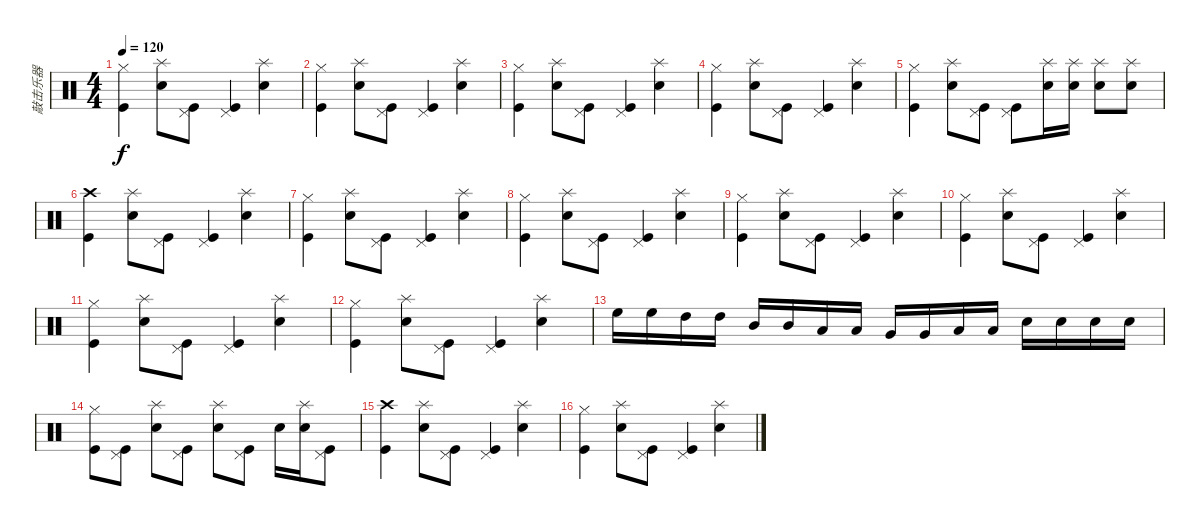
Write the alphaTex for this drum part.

\track ("敲击乐器" "敲击乐器") {instrument percussion}
\staff {score}
\articulation defaults
\ts (4 4)
\tempo 120
\clef neutral
\ks c
("Hi-Hat (closed)" "Kick (hit)").4{dy f} ("Splash (hit)" "Snare (hit) 2").8 ("Pedal Hi-Hat (hit)" "Kick (hit)").8 ("Pedal Hi-Hat (hit)" "Kick (hit)").4 ("Splash (hit)" "Snare (hit) 2").4 |
("Hi-Hat (closed)" "Kick (hit)").4 ("Splash (hit)" "Snare (hit) 2").8 ("Pedal Hi-Hat (hit)" "Kick (hit)").8 ("Pedal Hi-Hat (hit)" "Kick (hit)").4 ("Splash (hit)" "Snare (hit) 2").4 |
("Hi-Hat (closed)" "Kick (hit)").4 ("Splash (hit)" "Snare (hit) 2").8 ("Pedal Hi-Hat (hit)" "Kick (hit)").8 ("Pedal Hi-Hat (hit)" "Kick (hit)").4 ("Splash (hit)" "Snare (hit) 2").4 |
("Hi-Hat (closed)" "Kick (hit)").4 ("Splash (hit)" "Snare (hit) 2").8 ("Pedal Hi-Hat (hit)" "Kick (hit)").8 ("Pedal Hi-Hat (hit)" "Kick (hit)").4 ("Splash (hit)" "Snare (hit) 2").4 |
("Hi-Hat (closed)" "Kick (hit)").4 ("Splash (hit)" "Snare (hit) 2").8 ("Pedal Hi-Hat (hit)" "Kick (hit)").8 ("Pedal Hi-Hat (hit)" "Kick (hit)").8 ("Splash (hit)" "Snare (hit) 2").16 ("Splash (hit)" "Snare (hit) 2").16 ("Splash (hit)" "Snare (hit) 2").8 ("Splash (hit)" "Snare (hit) 2").8 |
("Crash high (hit)" "Kick (hit)").4 ("Splash (hit)" "Snare (hit) 2").8 ("Pedal Hi-Hat (hit)" "Kick (hit)").8 ("Pedal Hi-Hat (hit)" "Kick (hit)").4 ("Splash (hit)" "Snare (hit) 2").4 |
("Hi-Hat (closed)" "Kick (hit)").4 ("Splash (hit)" "Snare (hit) 2").8 ("Pedal Hi-Hat (hit)" "Kick (hit)").8 ("Pedal Hi-Hat (hit)" "Kick (hit)").4 ("Splash (hit)" "Snare (hit) 2").4 |
("Hi-Hat (closed)" "Kick (hit)").4 ("Splash (hit)" "Snare (hit) 2").8 ("Pedal Hi-Hat (hit)" "Kick (hit)").8 ("Pedal Hi-Hat (hit)" "Kick (hit)").4 ("Splash (hit)" "Snare (hit) 2").4 |
("Hi-Hat (closed)" "Kick (hit)").4 ("Splash (hit)" "Snare (hit) 2").8 ("Pedal Hi-Hat (hit)" "Kick (hit)").8 ("Pedal Hi-Hat (hit)" "Kick (hit)").4 ("Splash (hit)" "Snare (hit) 2").4 |
("Hi-Hat (closed)" "Kick (hit)").4 ("Splash (hit)" "Snare (hit) 2").8 ("Pedal Hi-Hat (hit)" "Kick (hit)").8 ("Pedal Hi-Hat (hit)" "Kick (hit)").4 ("Splash (hit)" "Snare (hit) 2").4 |
("Hi-Hat (closed)" "Kick (hit)").4 ("Splash (hit)" "Snare (hit) 2").8 ("Pedal Hi-Hat (hit)" "Kick (hit)").8 ("Pedal Hi-Hat (hit)" "Kick (hit)").4 ("Splash (hit)" "Snare (hit) 2").4 |
("Hi-Hat (closed)" "Kick (hit)").4 ("Splash (hit)" "Snare (hit) 2").8 ("Pedal Hi-Hat (hit)" "Kick (hit)").8 ("Pedal Hi-Hat (hit)" "Kick (hit)").4 ("Splash (hit)" "Snare (hit) 2").4 |
"High Floor Tom (hit)".16 "High Floor Tom (hit)".16 "High Tom (hit)".16 "High Tom (hit)".16 "Mid Tom (hit)".16 "Mid Tom (hit)".16 "Low Tom (hit)".16 "Low Tom (hit)".16 "Very Low Tom (hit)".16 "Very Low Tom (hit)".16 "Low Floor Tom (hit)".16 "Low Floor Tom (hit)".16 "Snare (hit) 2".16 "Snare (hit) 2".16 "Snare (hit) 2".16 "Snare (hit) 2".16 |
("Hi-Hat (closed)" "Kick (hit)").8 ("Pedal Hi-Hat (hit)" "Kick (hit)").8 ("Splash (hit)" "Snare (hit) 2").8 ("Pedal Hi-Hat (hit)" "Kick (hit)").8 ("Splash (hit)" "Snare (hit) 2").8 ("Pedal Hi-Hat (hit)" "Kick (hit)").8 "Snare (hit) 2".16 ("Splash (hit)" "Snare (hit) 2").16 ("Pedal Hi-Hat (hit)" "Kick (hit)").8 |
("Crash high (hit)" "Kick (hit)").4 ("Splash (hit)" "Snare (hit) 2").8 ("Pedal Hi-Hat (hit)" "Kick (hit)").8 ("Pedal Hi-Hat (hit)" "Kick (hit)").4 ("Splash (hit)" "Snare (hit) 2").4 |
("Hi-Hat (closed)" "Kick (hit)").4 ("Splash (hit)" "Snare (hit) 2").8 ("Pedal Hi-Hat (hit)" "Kick (hit)").8 ("Pedal Hi-Hat (hit)" "Kick (hit)").4 ("Splash (hit)" "Snare (hit) 2").4
